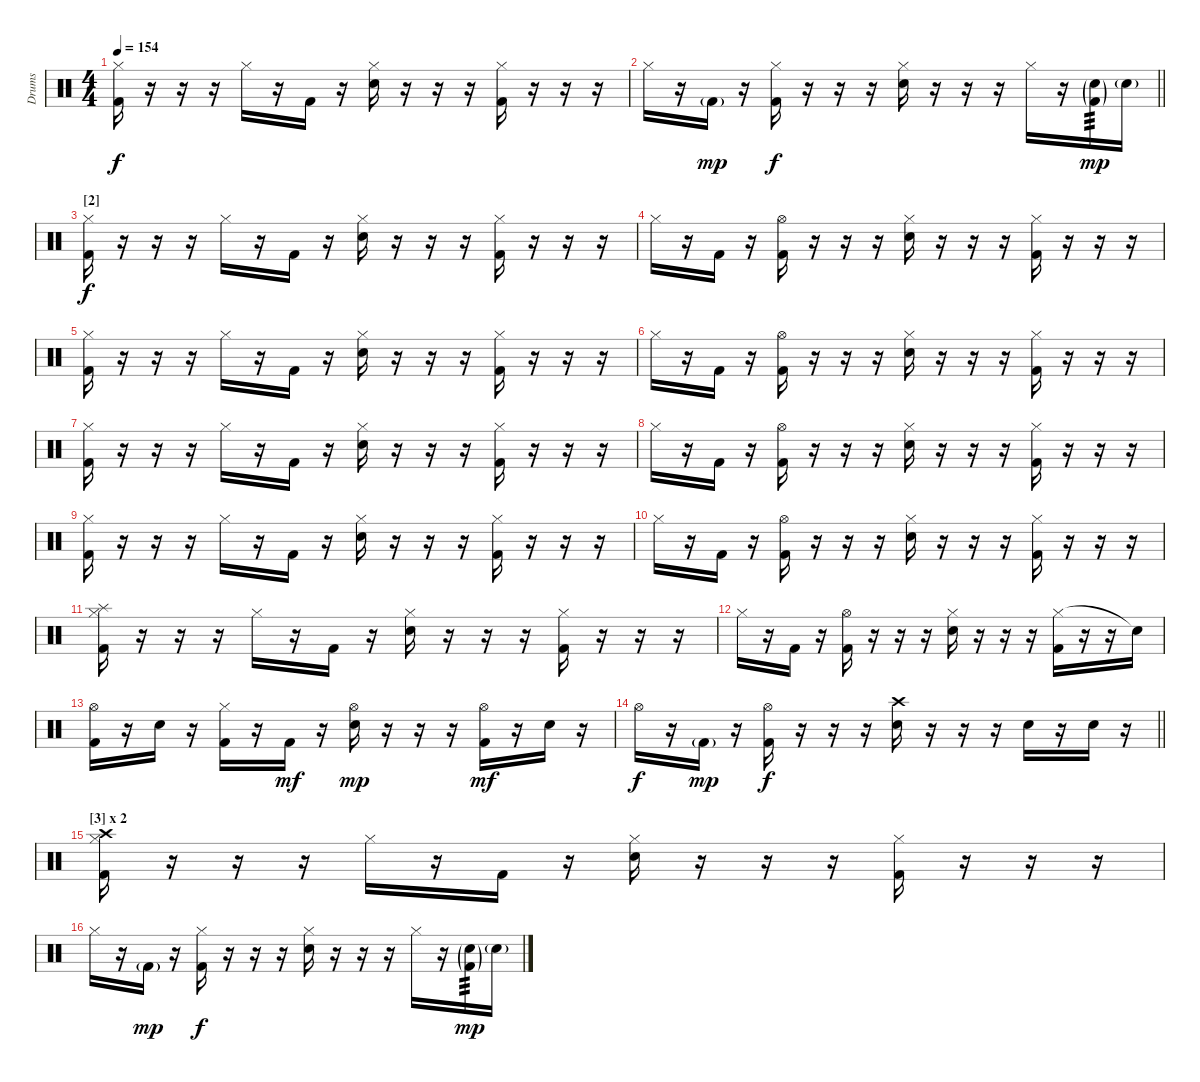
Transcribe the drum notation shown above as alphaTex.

\track ("Drums" "Drums") {instrument percussion}
\staff {score}
\articulation defaults
\ts (4 4)
\tempo 154
\clef neutral
\ks c
("Hi-Hat (closed)" "Kick (hit) 2").16{dy f} r.16 r.16 r.16 "Hi-Hat (closed)".16 r.16 "Kick (hit) 2".16 r.16 ("Hi-Hat (closed)" "Electric Snare (hit)").16 r.16 r.16 r.16 ("Hi-Hat (closed)" "Kick (hit) 2").16 r.16 r.16 r.16 |
\barLineRight lightlight "Hi-Hat (closed)".16
r.16 "Kick (hit) 2"{g}.16{dy mp} r.16 ("Hi-Hat (closed)" "Kick (hit) 2").16{dy f} r.16 r.16 r.16 ("Hi-Hat (closed)" "Electric Snare (hit)").16 r.16 r.16 r.16 "Hi-Hat (closed)".16 r.16 ("Electric Snare (hit)"{g} "Kick (hit) 2"{g}).16{tp 3 dy mp} "Electric Snare (hit)"{g}.16 |
\section ("" "[2]")
("Hi-Hat (closed)" "Kick (hit) 2").16{dy f} r.16 r.16 r.16 "Hi-Hat (closed)".16 r.16 "Kick (hit) 2".16 r.16 ("Hi-Hat (closed)" "Electric Snare (hit)").16 r.16 r.16 r.16 ("Hi-Hat (closed)" "Kick (hit) 2").16 r.16 r.16 r.16 |
"Hi-Hat (closed)".16 r.16 "Kick (hit) 2".16 r.16 ("Hi-Hat (open)" "Kick (hit) 2").16 r.16 r.16 r.16 ("Hi-Hat (closed)" "Electric Snare (hit)").16 r.16 r.16 r.16 ("Hi-Hat (closed)" "Kick (hit) 2").16 r.16 r.16 r.16 |
("Hi-Hat (closed)" "Kick (hit) 2").16 r.16 r.16 r.16 "Hi-Hat (closed)".16 r.16 "Kick (hit) 2".16 r.16 ("Hi-Hat (closed)" "Electric Snare (hit)").16 r.16 r.16 r.16 ("Hi-Hat (closed)" "Kick (hit) 2").16 r.16 r.16 r.16 |
"Hi-Hat (closed)".16 r.16 "Kick (hit) 2".16 r.16 ("Hi-Hat (open)" "Kick (hit) 2").16 r.16 r.16 r.16 ("Hi-Hat (closed)" "Electric Snare (hit)").16 r.16 r.16 r.16 ("Hi-Hat (closed)" "Kick (hit) 2").16 r.16 r.16 r.16 |
("Hi-Hat (closed)" "Kick (hit) 2").16 r.16 r.16 r.16 "Hi-Hat (closed)".16 r.16 "Kick (hit) 2".16 r.16 ("Hi-Hat (closed)" "Electric Snare (hit)").16 r.16 r.16 r.16 ("Hi-Hat (closed)" "Kick (hit) 2").16 r.16 r.16 r.16 |
"Hi-Hat (closed)".16 r.16 "Kick (hit) 2".16 r.16 ("Hi-Hat (open)" "Kick (hit) 2").16 r.16 r.16 r.16 ("Hi-Hat (closed)" "Electric Snare (hit)").16 r.16 r.16 r.16 ("Hi-Hat (closed)" "Kick (hit) 2").16 r.16 r.16 r.16 |
("Hi-Hat (closed)" "Kick (hit) 2").16 r.16 r.16 r.16 "Hi-Hat (closed)".16 r.16 "Kick (hit) 2".16 r.16 ("Hi-Hat (closed)" "Electric Snare (hit)").16 r.16 r.16 r.16 ("Hi-Hat (closed)" "Kick (hit) 2").16 r.16 r.16 r.16 |
"Hi-Hat (closed)".16 r.16 "Kick (hit) 2".16 r.16 ("Hi-Hat (open)" "Kick (hit) 2").16 r.16 r.16 r.16 ("Hi-Hat (closed)" "Electric Snare (hit)").16 r.16 r.16 r.16 ("Hi-Hat (closed)" "Kick (hit) 2").16 r.16 r.16 r.16 |
("Splash (hit)" "Hi-Hat (closed)" "Kick (hit) 2").16 r.16 r.16 r.16 "Hi-Hat (closed)".16 r.16 "Kick (hit) 2".16 r.16 ("Hi-Hat (closed)" "Electric Snare (hit)").16 r.16 r.16 r.16 ("Hi-Hat (closed)" "Kick (hit) 2").16 r.16 r.16 r.16 |
"Hi-Hat (closed)".16 r.16 "Kick (hit) 2".16 r.16 ("Hi-Hat (open)" "Kick (hit) 2").16 r.16 r.16 r.16 ("Hi-Hat (closed)" "Electric Snare (hit)").16 r.16 r.16 r.16 ("Hi-Hat (closed)" "Kick (hit) 2").16 r.16 r.16 "Snare (hit)"{t}.16 |
("Hi-Hat (open)" "Kick (hit) 2").16 r.16 "Electric Snare (hit)".16 r.16 ("Hi-Hat (closed)" "Kick (hit) 2").16 r.16 "Kick (hit) 2".16{dy mf} r.16 ("Hi-Hat (open)" "Electric Snare (hit)").16{dy mp} r.16 r.16 r.16 ("Hi-Hat (open)" "Kick (hit) 2").16{dy mf} r.16 "Electric Snare (hit)".16 r.16 |
\barLineRight lightlight "Hi-Hat (open)".16{dy f}
r.16 "Kick (hit) 2"{g}.16{dy mp} r.16 ("Hi-Hat (open)" "Kick (hit) 2").16{dy f} r.16 r.16 r.16 ("Crash high (hit)" "Electric Snare (hit)").16 r.16 r.16 r.16 "Electric Snare (hit)".16 r.16 "Electric Snare (hit)".16 r.16 |
\section ("" "[3] x 2")
("Crash high (hit)" "Hi-Hat (closed)" "Kick (hit) 2").16 r.16 r.16 r.16 "Hi-Hat (closed)".16 r.16 "Kick (hit) 2".16 r.16 ("Hi-Hat (closed)" "Electric Snare (hit)").16 r.16 r.16 r.16 ("Hi-Hat (closed)" "Kick (hit) 2").16 r.16 r.16 r.16 |
"Hi-Hat (closed)".16 r.16 "Kick (hit) 2"{g}.16{dy mp} r.16 ("Hi-Hat (closed)" "Kick (hit) 2").16{dy f} r.16 r.16 r.16 ("Hi-Hat (closed)" "Electric Snare (hit)").16 r.16 r.16 r.16 "Hi-Hat (closed)".16 r.16 ("Electric Snare (hit)"{g} "Kick (hit) 2"{g}).16{tp 3 dy mp} "Electric Snare (hit)"{g}.16
